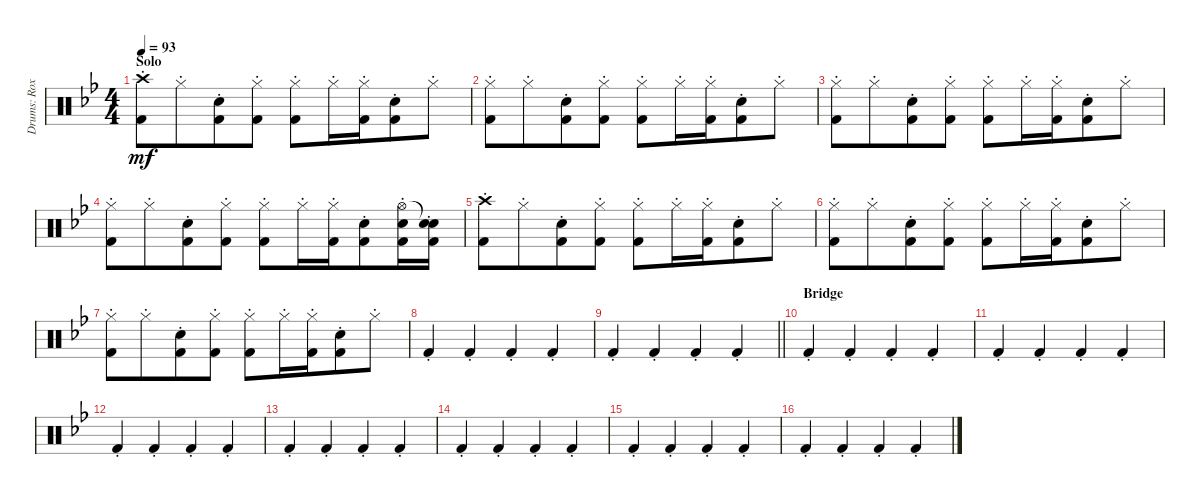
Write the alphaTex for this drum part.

\track ("Drums: Roxy" "Drums: Rox") {instrument percussion}
\staff {score}
\articulation defaults
\ts (4 4)
\section ("" "Solo")
\tempo 93
\clef neutral
\ks bb
("Crash high (hit)"{st} "Kick (hit) 2"{st}).8{dy mf} "Hi-Hat (closed)"{st}.8{beam merge} ("Snare (hit) 2"{st} "Kick (hit) 2"{st}).8 ("Hi-Hat (closed)"{st} "Kick (hit) 2"{st}).8{beam split} ("Hi-Hat (closed)"{st} "Kick (hit) 2"{st}).8 "Hi-Hat (closed)"{st}.16 ("Hi-Hat (closed)"{st} "Kick (hit) 2"{st}).16{beam merge} ("Snare (hit) 2"{st} "Kick (hit) 2"{st}).8 "Hi-Hat (closed)"{st}.8 |
("Hi-Hat (closed)"{st} "Kick (hit) 2"{st}).8 "Hi-Hat (closed)"{st}.8{beam merge} ("Snare (hit) 2"{st} "Kick (hit) 2"{st}).8 ("Hi-Hat (closed)"{st} "Kick (hit) 2"{st}).8{beam split} ("Hi-Hat (closed)"{st} "Kick (hit) 2"{st}).8 "Hi-Hat (closed)"{st}.16 ("Hi-Hat (closed)"{st} "Kick (hit) 2"{st}).16{beam merge} ("Snare (hit) 2"{st} "Kick (hit) 2"{st}).8 "Hi-Hat (closed)"{st}.8 |
("Hi-Hat (closed)"{st} "Kick (hit) 2"{st}).8 "Hi-Hat (closed)"{st}.8{beam merge} ("Snare (hit) 2"{st} "Kick (hit) 2"{st}).8 ("Hi-Hat (closed)"{st} "Kick (hit) 2"{st}).8{beam split} ("Hi-Hat (closed)"{st} "Kick (hit) 2"{st}).8 "Hi-Hat (closed)"{st}.16 ("Hi-Hat (closed)"{st} "Kick (hit) 2"{st}).16{beam merge} ("Snare (hit) 2"{st} "Kick (hit) 2"{st}).8 "Hi-Hat (closed)"{st}.8 |
("Hi-Hat (closed)"{st} "Kick (hit) 2"{st}).8 "Hi-Hat (closed)"{st}.8{beam merge} ("Snare (hit) 2"{st} "Kick (hit) 2"{st}).8 ("Hi-Hat (closed)"{st} "Kick (hit) 2"{st}).8{beam split} ("Hi-Hat (closed)"{st} "Kick (hit) 2"{st}).8 "Hi-Hat (closed)"{st}.16 ("Hi-Hat (closed)"{st} "Kick (hit) 2"{st}).16{beam merge} ("Snare (hit) 2"{st} "Kick (hit) 2"{st}).8{beam merge} ("Hi-Hat (open)"{st} "Snare (hit) 2"{st} "Kick (hit) 2"{st}).16{beam merge} ("Snare (hit)"{t} "Snare (hit) 2"{st} "Kick (hit) 2"{st}).16 |
("Crash high (hit)"{st} "Kick (hit) 2"{st}).8 "Hi-Hat (closed)"{st}.8{beam merge} ("Snare (hit) 2"{st} "Kick (hit) 2"{st}).8 ("Hi-Hat (closed)"{st} "Kick (hit) 2"{st}).8{beam split} ("Hi-Hat (closed)"{st} "Kick (hit) 2"{st}).8 "Hi-Hat (closed)"{st}.16 ("Hi-Hat (closed)"{st} "Kick (hit) 2"{st}).16{beam merge} ("Snare (hit) 2"{st} "Kick (hit) 2"{st}).8 "Hi-Hat (closed)"{st}.8 |
("Hi-Hat (closed)"{st} "Kick (hit) 2"{st}).8 "Hi-Hat (closed)"{st}.8{beam merge} ("Snare (hit) 2"{st} "Kick (hit) 2"{st}).8 ("Hi-Hat (closed)"{st} "Kick (hit) 2"{st}).8{beam split} ("Hi-Hat (closed)"{st} "Kick (hit) 2"{st}).8 "Hi-Hat (closed)"{st}.16 ("Hi-Hat (closed)"{st} "Kick (hit) 2"{st}).16{beam merge} ("Snare (hit) 2"{st} "Kick (hit) 2"{st}).8 "Hi-Hat (closed)"{st}.8 |
("Hi-Hat (closed)"{st} "Kick (hit) 2"{st}).8 "Hi-Hat (closed)"{st}.8{beam merge} ("Snare (hit) 2"{st} "Kick (hit) 2"{st}).8 ("Hi-Hat (closed)"{st} "Kick (hit) 2"{st}).8{beam split} ("Hi-Hat (closed)"{st} "Kick (hit) 2"{st}).8 "Hi-Hat (closed)"{st}.16 ("Hi-Hat (closed)"{st} "Kick (hit) 2"{st}).16{beam merge} ("Snare (hit) 2"{st} "Kick (hit) 2"{st}).8 "Hi-Hat (closed)"{st}.8 |
"Kick (hit) 2"{st}.4 "Kick (hit) 2"{st}.4 "Kick (hit) 2"{st}.4 "Kick (hit) 2"{st}.4 |
\barLineRight lightlight "Kick (hit) 2"{st}.4 "Kick (hit) 2"{st}.4 "Kick (hit) 2"{st}.4 "Kick (hit) 2"{st}.4
|
\section ("" "Bridge")
"Kick (hit) 2"{st}.4 "Kick (hit) 2"{st}.4 "Kick (hit) 2"{st}.4 "Kick (hit) 2"{st}.4 |
"Kick (hit) 2"{st}.4 "Kick (hit) 2"{st}.4 "Kick (hit) 2"{st}.4 "Kick (hit) 2"{st}.4 |
"Kick (hit) 2"{st}.4 "Kick (hit) 2"{st}.4 "Kick (hit) 2"{st}.4 "Kick (hit) 2"{st}.4 |
"Kick (hit) 2"{st}.4 "Kick (hit) 2"{st}.4 "Kick (hit) 2"{st}.4 "Kick (hit) 2"{st}.4 |
"Kick (hit) 2"{st}.4 "Kick (hit) 2"{st}.4 "Kick (hit) 2"{st}.4 "Kick (hit) 2"{st}.4 |
"Kick (hit) 2"{st}.4 "Kick (hit) 2"{st}.4 "Kick (hit) 2"{st}.4 "Kick (hit) 2"{st}.4 |
"Kick (hit) 2"{st}.4 "Kick (hit) 2"{st}.4 "Kick (hit) 2"{st}.4 "Kick (hit) 2"{st}.4
